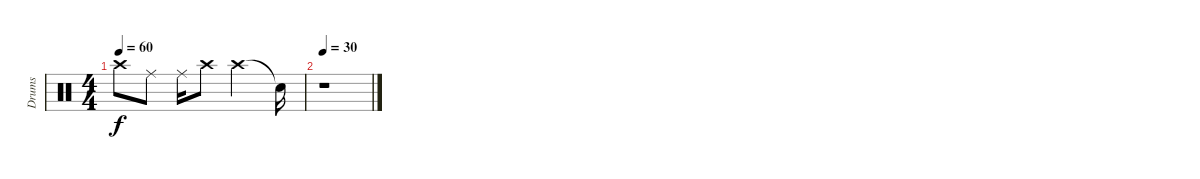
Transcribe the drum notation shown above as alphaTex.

\track ("Drums" "Drums") {instrument percussion}
\staff {score}
\articulation defaults
\ts (4 4)
\tempo 60
\clef neutral
\ks c "Crash high (hit)".8{dy f} "Ride (middle)".8 "Ride (middle)".16 "Crash high (hit)".8 "Crash high (hit)".2 "Snare (hit)"{t}.16
|
\tempo 30
r.1
